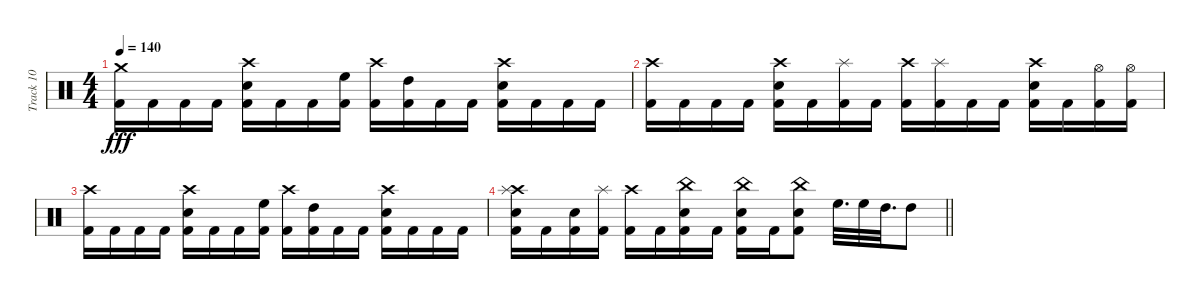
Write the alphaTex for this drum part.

\track ("Track 10" "Track 10") {instrument percussion}
\staff {score}
\articulation defaults
\ts (4 4)
\tempo 140
\clef neutral
\ks c
("Kick (hit) 2" "Crash medium (hit)").16{dy fff} "Kick (hit) 2".16 "Kick (hit) 2".16 "Kick (hit) 2".16 ("Kick (hit) 2" "Snare (hit) 2" "Crash high (hit)").16 "Kick (hit) 2".16 "Kick (hit) 2".16 ("High Floor Tom (hit)" "Kick (hit) 2").16 ("Crash high (hit)" "Kick (hit) 2").16 ("Kick (hit) 2" "High Tom (hit)").16 "Kick (hit) 2".16 "Kick (hit) 2".16 ("Kick (hit) 2" "Snare (hit) 2" "Crash high (hit)").16 "Kick (hit) 2".16 "Kick (hit) 2".16 "Kick (hit) 2".16 |
("Crash high (hit)" "Kick (hit) 2").16 "Kick (hit) 2".16 "Kick (hit) 2".16 "Kick (hit) 2".16 ("Kick (hit) 2" "Snare (hit) 2" "Crash high (hit)").16 "Kick (hit) 2".16 ("Kick (hit) 2" "Splash (hit)").16 "Kick (hit) 2".16 ("Crash high (hit)" "Kick (hit) 2").16 ("Kick (hit) 2" "Splash (hit)").16 "Kick (hit) 2".16 "Kick (hit) 2".16 ("Kick (hit) 2" "Snare (hit) 2" "Crash high (hit)").16 "Kick (hit) 2".16 ("Hi-Hat (open)" "Kick (hit) 2").16 ("Kick (hit) 2" "Hi-Hat (open)").16 |
("Kick (hit) 2" "Crash high (hit)").16 "Kick (hit) 2".16 "Kick (hit) 2".16 "Kick (hit) 2".16 ("Snare (hit) 2" "Crash high (hit)" "Kick (hit) 2").16 "Kick (hit) 2".16 "Kick (hit) 2".16 ("High Floor Tom (hit)" "Kick (hit) 2").16 ("Kick (hit) 2" "Crash high (hit)").16 ("High Tom (hit)" "Kick (hit) 2").16 "Kick (hit) 2".16 "Kick (hit) 2".16 ("Crash high (hit)" "Snare (hit) 2" "Kick (hit) 2").16 "Kick (hit) 2".16 "Kick (hit) 2".16 "Kick (hit) 2".16 |
\barLineRight lightlight
("Crash high (hit)" "Kick (hit) 2" "Snare (hit) 2" "Splash (hit)").16 "Kick (hit) 2".16 ("Kick (hit) 2" "Snare (hit) 2").16 ("Splash (hit)" "Kick (hit) 2").16 ("Kick (hit) 2" "Crash high (hit)").16 "Kick (hit) 2".16 ("Kick (hit) 2" "Snare (hit) 2" "China (hit)").16 "Kick (hit) 2".16 ("China (hit)" "Kick (hit) 2" "Snare (hit) 2").16 "Kick (hit) 2".16 ("Snare (hit) 2" "Kick (hit) 2" "China (hit)").8 "High Floor Tom (hit)".32{d} "High Floor Tom (hit)".32 "High Tom (hit)".32{d} "High Tom (hit)".8
